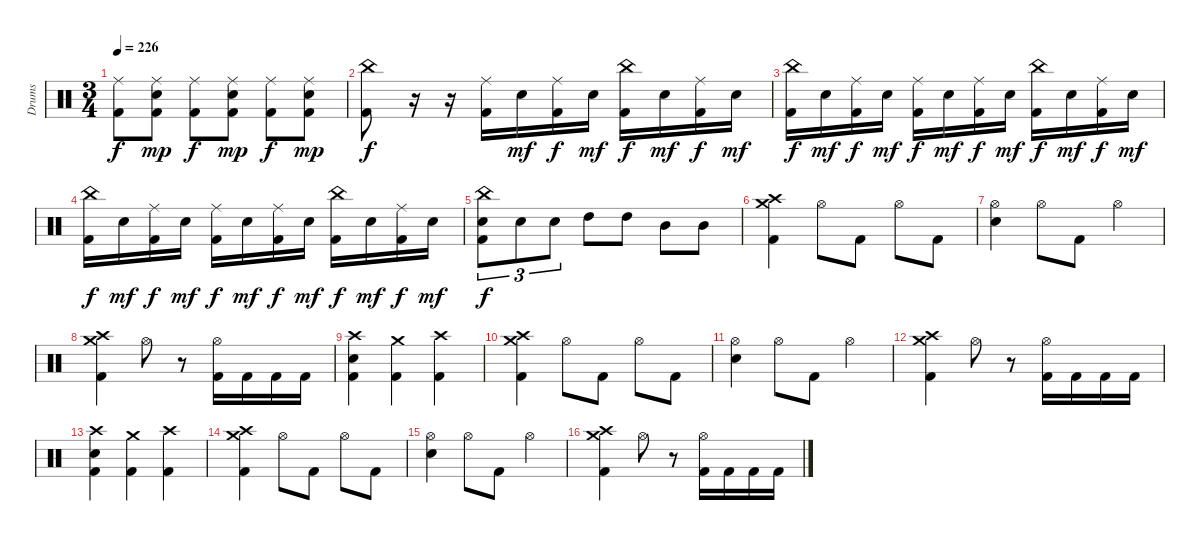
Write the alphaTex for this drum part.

\track ("Drums" "Drums") {instrument percussion}
\staff {score}
\articulation defaults
\ts (3 4)
\tempo 226
\clef neutral
\ks c
("Ride (middle)" "Kick (hit) 2").8{dy f} ("Ride (middle)" "Electric Snare (hit)" "Kick (hit) 2").8{dy mp} ("Ride (middle)" "Kick (hit) 2").8{dy f} ("Ride (middle)" "Electric Snare (hit)" "Kick (hit) 2").8{dy mp} ("Ride (middle)" "Kick (hit) 2").8{dy f} ("Ride (middle)" "Electric Snare (hit)" "Kick (hit) 2").8{dy mp} |
("China (hit)" "Kick (hit) 2").8{dy f} r.16 r.16 ("Ride (middle)" "Kick (hit) 2").16 "Electric Snare (hit)".16{dy mf} ("Ride (middle)" "Kick (hit) 2").16{dy f} "Electric Snare (hit)".16{dy mf} ("China (hit)" "Kick (hit) 2").16{dy f} "Electric Snare (hit)".16{dy mf} ("Ride (middle)" "Kick (hit) 2").16{dy f} "Electric Snare (hit)".16{dy mf} |
("China (hit)" "Kick (hit) 2").16{dy f} "Electric Snare (hit)".16{dy mf} ("Ride (middle)" "Kick (hit) 2").16{dy f} "Electric Snare (hit)".16{dy mf} ("Ride (middle)" "Kick (hit) 2").16{dy f} "Electric Snare (hit)".16{dy mf} ("Ride (middle)" "Kick (hit) 2").16{dy f} "Electric Snare (hit)".16{dy mf} ("China (hit)" "Kick (hit) 2").16{dy f} "Electric Snare (hit)".16{dy mf} ("Ride (middle)" "Kick (hit) 2").16{dy f} "Electric Snare (hit)".16{dy mf} |
("China (hit)" "Kick (hit) 2").16{dy f} "Electric Snare (hit)".16{dy mf} ("Ride (middle)" "Kick (hit) 2").16{dy f} "Electric Snare (hit)".16{dy mf} ("Ride (middle)" "Kick (hit) 2").16{dy f} "Electric Snare (hit)".16{dy mf} ("Ride (middle)" "Kick (hit) 2").16{dy f} "Electric Snare (hit)".16{dy mf} ("China (hit)" "Kick (hit) 2").16{dy f} "Electric Snare (hit)".16{dy mf} ("Ride (middle)" "Kick (hit) 2").16{dy f} "Electric Snare (hit)".16{dy mf} |
("China (hit)" "Electric Snare (hit)" "Kick (hit) 2").8{tu (3 2) dy f} "Electric Snare (hit)".8{tu (3 2)} "Electric Snare (hit)".8{tu (3 2)} "High Tom (hit)".8 "High Tom (hit)".8 "Mid Tom (hit)".8 "Mid Tom (hit)".8 |
("Crash high (hit)" "Crash medium (hit)" "Kick (hit) 2").4 "Hi-Hat (open)".8 "Kick (hit) 2".8 "Hi-Hat (open)".8 "Kick (hit) 2".8 |
("Hi-Hat (open)" "Electric Snare (hit)").4 "Hi-Hat (open)".8 "Kick (hit) 2".8 "Hi-Hat (open)".4 |
("Crash high (hit)" "Crash medium (hit)" "Kick (hit) 2").4 "Hi-Hat (open)".8 r.8 ("Hi-Hat (open)" "Kick (hit) 2").16 "Kick (hit) 2".16 "Kick (hit) 2".16 "Kick (hit) 2".16 |
("Crash high (hit)" "Electric Snare (hit)" "Kick (hit) 2").4 ("Crash medium (hit)" "Kick (hit) 2").4 ("Crash high (hit)" "Kick (hit) 2").4 |
("Crash high (hit)" "Crash medium (hit)" "Kick (hit) 2").4 "Hi-Hat (open)".8 "Kick (hit) 2".8 "Hi-Hat (open)".8 "Kick (hit) 2".8 |
("Hi-Hat (open)" "Electric Snare (hit)").4 "Hi-Hat (open)".8 "Kick (hit) 2".8 "Hi-Hat (open)".4 |
("Crash high (hit)" "Crash medium (hit)" "Kick (hit) 2").4 "Hi-Hat (open)".8 r.8 ("Hi-Hat (open)" "Kick (hit) 2").16 "Kick (hit) 2".16 "Kick (hit) 2".16 "Kick (hit) 2".16 |
("Crash high (hit)" "Electric Snare (hit)" "Kick (hit) 2").4 ("Crash medium (hit)" "Kick (hit) 2").4 ("Crash high (hit)" "Kick (hit) 2").4 |
("Crash high (hit)" "Crash medium (hit)" "Kick (hit) 2").4 "Hi-Hat (open)".8 "Kick (hit) 2".8 "Hi-Hat (open)".8 "Kick (hit) 2".8 |
("Hi-Hat (open)" "Electric Snare (hit)").4 "Hi-Hat (open)".8 "Kick (hit) 2".8 "Hi-Hat (open)".4 |
("Crash high (hit)" "Crash medium (hit)" "Kick (hit) 2").4 "Hi-Hat (open)".8 r.8 ("Hi-Hat (open)" "Kick (hit) 2").16 "Kick (hit) 2".16 "Kick (hit) 2".16 "Kick (hit) 2".16
